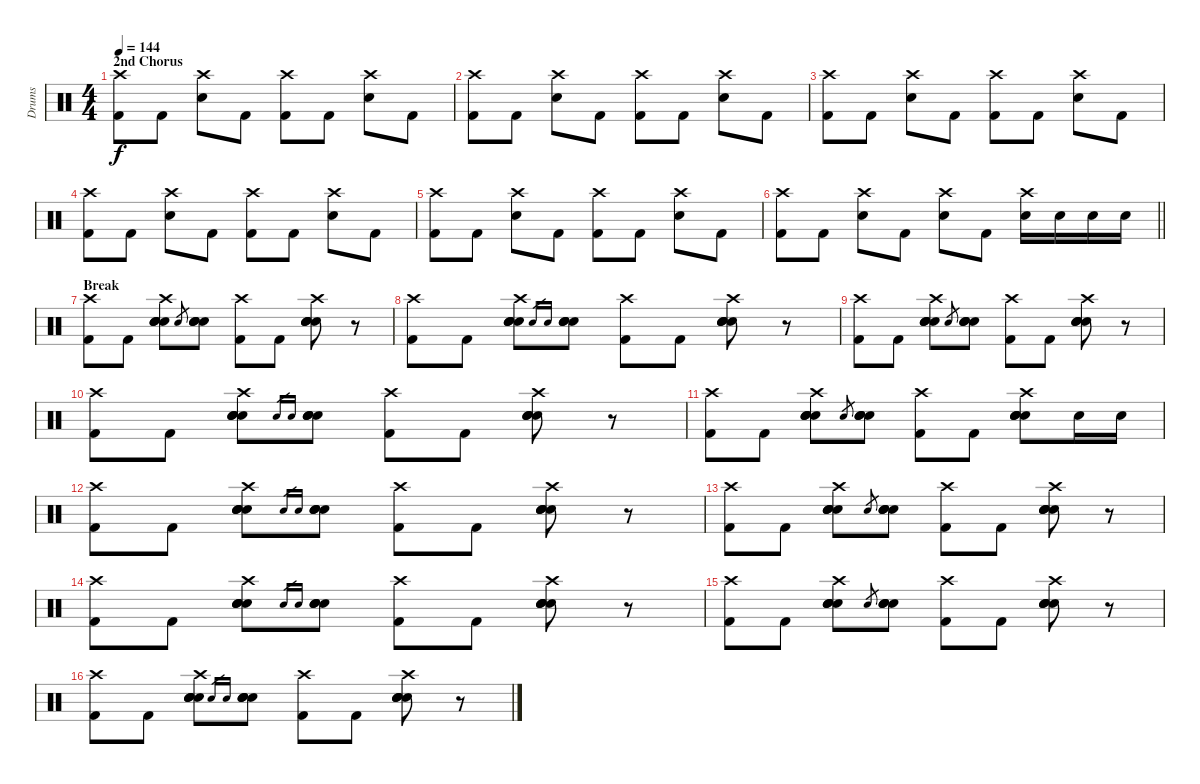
\track ("Drums" "Drums") {instrument percussion}
\staff {score}
\articulation defaults
\ts (4 4)
\section ("" "2nd Chorus")
\tempo 144
\clef neutral
\ks c
("Crash high (hit)" "Kick (hit) 2").8{dy f} "Kick (hit) 2".8 ("Crash high (hit)" "Electric Snare (hit)").8 "Kick (hit) 2".8 ("Crash high (hit)" "Kick (hit) 2").8 "Kick (hit) 2".8 ("Crash high (hit)" "Electric Snare (hit)").8 "Kick (hit) 2".8 |
("Crash high (hit)" "Kick (hit) 2").8 "Kick (hit) 2".8 ("Crash high (hit)" "Electric Snare (hit)").8 "Kick (hit) 2".8 ("Crash high (hit)" "Kick (hit) 2").8 "Kick (hit) 2".8 ("Crash high (hit)" "Electric Snare (hit)").8 "Kick (hit) 2".8 |
("Crash high (hit)" "Kick (hit) 2").8 "Kick (hit) 2".8 ("Crash high (hit)" "Electric Snare (hit)").8 "Kick (hit) 2".8 ("Crash high (hit)" "Kick (hit) 2").8 "Kick (hit) 2".8 ("Crash high (hit)" "Electric Snare (hit)").8 "Kick (hit) 2".8 |
("Crash high (hit)" "Kick (hit) 2").8 "Kick (hit) 2".8 ("Crash high (hit)" "Electric Snare (hit)").8 "Kick (hit) 2".8 ("Crash high (hit)" "Kick (hit) 2").8 "Kick (hit) 2".8 ("Crash high (hit)" "Electric Snare (hit)").8 "Kick (hit) 2".8 |
("Crash high (hit)" "Kick (hit) 2").8 "Kick (hit) 2".8 ("Crash high (hit)" "Electric Snare (hit)").8 "Kick (hit) 2".8 ("Crash high (hit)" "Kick (hit) 2").8 "Kick (hit) 2".8 ("Crash high (hit)" "Electric Snare (hit)").8 "Kick (hit) 2".8 |
\barLineRight lightlight
("Crash high (hit)" "Kick (hit) 2").8 "Kick (hit) 2".8 ("Crash high (hit)" "Electric Snare (hit)").8 "Kick (hit) 2".8 ("Crash high (hit)" "Electric Snare (hit)").8 "Kick (hit) 2".8 ("Crash high (hit)" "Electric Snare (hit)").16 "Electric Snare (hit)".16 "Electric Snare (hit)".16 "Electric Snare (hit)".16 |
\section ("" "Break")
("Crash high (hit)" "Kick (hit) 2").8 "Kick (hit) 2".8 ("Crash high (hit)" "Hand Clap (hit)" "Hand Clap (hit)" "Hand Clap (hit)" "Electric Snare (hit)").8 "Hand Clap (hit)".8{gr} ("Hand Clap (hit)" "Hand Clap (hit)" "Hand Clap (hit)" "Electric Snare (hit)").8 ("Crash high (hit)" "Kick (hit) 2").8 "Kick (hit) 2".8 ("Crash high (hit)" "Hand Clap (hit)" "Hand Clap (hit)" "Hand Clap (hit)" "Electric Snare (hit)").8 r.8 |
("Crash high (hit)" "Kick (hit) 2").8 "Kick (hit) 2".8 ("Crash high (hit)" "Hand Clap (hit)" "Hand Clap (hit)" "Hand Clap (hit)" "Electric Snare (hit)").8 "Hand Clap (hit)".16{gr} "Hand Clap (hit)".16{gr} ("Hand Clap (hit)" "Hand Clap (hit)" "Hand Clap (hit)" "Electric Snare (hit)").8 ("Crash high (hit)" "Kick (hit) 2").8 "Kick (hit) 2".8 ("Crash high (hit)" "Hand Clap (hit)" "Hand Clap (hit)" "Hand Clap (hit)" "Electric Snare (hit)").8 r.8 |
("Crash high (hit)" "Kick (hit) 2").8 "Kick (hit) 2".8 ("Crash high (hit)" "Hand Clap (hit)" "Hand Clap (hit)" "Hand Clap (hit)" "Electric Snare (hit)").8 "Hand Clap (hit)".8{gr} ("Hand Clap (hit)" "Hand Clap (hit)" "Hand Clap (hit)" "Electric Snare (hit)").8 ("Crash high (hit)" "Kick (hit) 2").8 "Kick (hit) 2".8 ("Crash high (hit)" "Hand Clap (hit)" "Hand Clap (hit)" "Hand Clap (hit)" "Electric Snare (hit)").8 r.8 |
("Crash high (hit)" "Kick (hit) 2").8 "Kick (hit) 2".8 ("Crash high (hit)" "Hand Clap (hit)" "Hand Clap (hit)" "Hand Clap (hit)" "Electric Snare (hit)").8 "Hand Clap (hit)".16{gr} "Hand Clap (hit)".16{gr} ("Hand Clap (hit)" "Hand Clap (hit)" "Hand Clap (hit)" "Electric Snare (hit)").8 ("Crash high (hit)" "Kick (hit) 2").8 "Kick (hit) 2".8 ("Crash high (hit)" "Hand Clap (hit)" "Hand Clap (hit)" "Hand Clap (hit)" "Electric Snare (hit)").8 r.8 |
("Crash high (hit)" "Kick (hit) 2").8 "Kick (hit) 2".8 ("Crash high (hit)" "Hand Clap (hit)" "Hand Clap (hit)" "Hand Clap (hit)" "Electric Snare (hit)").8 "Hand Clap (hit)".8{gr} ("Hand Clap (hit)" "Hand Clap (hit)" "Hand Clap (hit)" "Electric Snare (hit)").8 ("Crash high (hit)" "Kick (hit) 2").8 "Kick (hit) 2".8 ("Crash high (hit)" "Hand Clap (hit)" "Hand Clap (hit)" "Hand Clap (hit)" "Electric Snare (hit)").8 "Electric Snare (hit)".16 "Electric Snare (hit)".16 |
("Crash high (hit)" "Kick (hit) 2").8 "Kick (hit) 2".8 ("Crash high (hit)" "Hand Clap (hit)" "Hand Clap (hit)" "Hand Clap (hit)" "Electric Snare (hit)").8 "Hand Clap (hit)".16{gr} "Hand Clap (hit)".16{gr} ("Hand Clap (hit)" "Hand Clap (hit)" "Hand Clap (hit)" "Electric Snare (hit)").8 ("Crash high (hit)" "Kick (hit) 2").8 "Kick (hit) 2".8 ("Crash high (hit)" "Hand Clap (hit)" "Hand Clap (hit)" "Hand Clap (hit)" "Electric Snare (hit)").8 r.8 |
("Crash high (hit)" "Kick (hit) 2").8 "Kick (hit) 2".8 ("Crash high (hit)" "Hand Clap (hit)" "Hand Clap (hit)" "Hand Clap (hit)" "Electric Snare (hit)").8 "Hand Clap (hit)".8{gr} ("Hand Clap (hit)" "Hand Clap (hit)" "Hand Clap (hit)" "Electric Snare (hit)").8 ("Crash high (hit)" "Kick (hit) 2").8 "Kick (hit) 2".8 ("Crash high (hit)" "Hand Clap (hit)" "Hand Clap (hit)" "Hand Clap (hit)" "Electric Snare (hit)").8 r.8 |
("Crash high (hit)" "Kick (hit) 2").8 "Kick (hit) 2".8 ("Crash high (hit)" "Hand Clap (hit)" "Hand Clap (hit)" "Hand Clap (hit)" "Electric Snare (hit)").8 "Hand Clap (hit)".16{gr} "Hand Clap (hit)".16{gr} ("Hand Clap (hit)" "Hand Clap (hit)" "Hand Clap (hit)" "Electric Snare (hit)").8 ("Crash high (hit)" "Kick (hit) 2").8 "Kick (hit) 2".8 ("Crash high (hit)" "Hand Clap (hit)" "Hand Clap (hit)" "Hand Clap (hit)" "Electric Snare (hit)").8 r.8 |
("Crash high (hit)" "Kick (hit) 2").8 "Kick (hit) 2".8 ("Crash high (hit)" "Hand Clap (hit)" "Hand Clap (hit)" "Hand Clap (hit)" "Electric Snare (hit)").8 "Hand Clap (hit)".8{gr} ("Hand Clap (hit)" "Hand Clap (hit)" "Hand Clap (hit)" "Electric Snare (hit)").8 ("Crash high (hit)" "Kick (hit) 2").8 "Kick (hit) 2".8 ("Crash high (hit)" "Hand Clap (hit)" "Hand Clap (hit)" "Hand Clap (hit)" "Electric Snare (hit)").8 r.8 |
("Crash high (hit)" "Kick (hit) 2").8 "Kick (hit) 2".8 ("Crash high (hit)" "Hand Clap (hit)" "Hand Clap (hit)" "Hand Clap (hit)" "Electric Snare (hit)").8 "Hand Clap (hit)".16{gr} "Hand Clap (hit)".16{gr} ("Hand Clap (hit)" "Hand Clap (hit)" "Hand Clap (hit)" "Electric Snare (hit)").8 ("Crash high (hit)" "Kick (hit) 2").8 "Kick (hit) 2".8 ("Crash high (hit)" "Hand Clap (hit)" "Hand Clap (hit)" "Hand Clap (hit)" "Electric Snare (hit)").8 r.8
